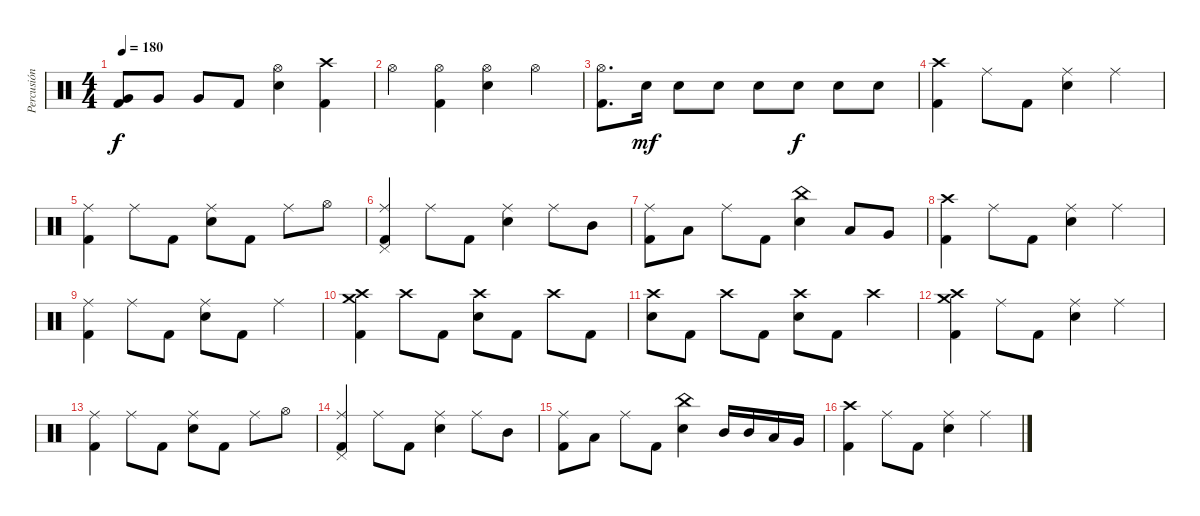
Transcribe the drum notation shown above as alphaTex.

\track ("Percusión" "Percusión") {instrument percussion}
\staff {score}
\articulation defaults
\ts (4 4)
\tempo 180
\clef neutral
\ks c
("Very Low Tom (hit)" "Kick (hit) 2").8{dy f} "Very Low Tom (hit)".8 "Very Low Tom (hit)".8 "Kick (hit) 2".8 ("Hi-Hat (open)" "Snare (hit) 2").4 ("Crash high (hit)" "Kick (hit) 2").4 |
"Hi-Hat (open)".4 ("Hi-Hat (open)" "Kick (hit) 2").4 ("Hi-Hat (open)" "Snare (hit) 2").4 "Hi-Hat (open)".4 |
("Hi-Hat (open)" "Kick (hit) 2").8{d} "Snare (hit) 2".16{dy mf} "Snare (hit) 2".8 "Snare (hit) 2".8 "Snare (hit) 2".8 "Snare (hit) 2".8{dy f} "Snare (hit) 2".8 "Snare (hit) 2".8 |
("Crash high (hit)" "Kick (hit) 2").4 "Ride (middle)".8 "Kick (hit) 2".8 ("Ride (middle)" "Snare (hit) 2").4 "Ride (middle)".4 |
("Ride (middle)" "Kick (hit) 2").4 "Ride (middle)".8 "Kick (hit) 2".8 ("Ride (middle)" "Snare (hit) 2").8 "Kick (hit) 2".8 "Ride (middle)".8 "Hi-Hat (open)".8 |
("Pedal Hi-Hat (hit)" "Ride (middle)" "Kick (hit) 2").4 "Ride (middle)".8 "Kick (hit) 2".8 ("Ride (middle)" "Snare (hit) 2").4 "Ride (middle)".8 "Mid Tom (hit)".8 |
("Ride (middle)" "Kick (hit) 2").8 "Low Tom (hit)".8 "Ride (middle)".8 "Kick (hit) 2".8 ("China (hit)" "Snare (hit) 2").4 "Low Tom (hit)".8 "Very Low Tom (hit)".8 |
("Crash high (hit)" "Kick (hit) 2").4 "Ride (middle)".8 "Kick (hit) 2".8 ("Ride (middle)" "Snare (hit) 2").4 "Ride (middle)".4 |
("Ride (middle)" "Kick (hit) 2").4 "Ride (middle)".8 "Kick (hit) 2".8 ("Ride (middle)" "Snare (hit) 2").8 "Kick (hit) 2".8 "Ride (middle)".4 |
("Crash medium (hit)" "Crash high (hit)" "Kick (hit) 2").4 "Crash high (hit)".8 "Kick (hit) 2".8 ("Crash high (hit)" "Snare (hit) 2").8 "Kick (hit) 2".8 "Crash high (hit)".8 "Kick (hit) 2".8 |
("Crash high (hit)" "Snare (hit) 2").8 "Kick (hit) 2".8 "Crash high (hit)".8 "Kick (hit) 2".8 ("Crash high (hit)" "Snare (hit) 2").8 "Kick (hit) 2".8 "Crash high (hit)".4 |
("Crash high (hit)" "Crash medium (hit)" "Kick (hit) 2").4 "Ride (middle)".8 "Kick (hit) 2".8 ("Ride (middle)" "Snare (hit) 2").4 "Ride (middle)".4 |
("Ride (middle)" "Kick (hit) 2").4 "Ride (middle)".8 "Kick (hit) 2".8 ("Ride (middle)" "Snare (hit) 2").8 "Kick (hit) 2".8 "Ride (middle)".8 "Hi-Hat (open)".8 |
("Pedal Hi-Hat (hit)" "Ride (middle)" "Kick (hit) 2").4 "Ride (middle)".8 "Kick (hit) 2".8 ("Ride (middle)" "Snare (hit) 2").4 "Ride (middle)".8 "Mid Tom (hit)".8 |
("Ride (middle)" "Kick (hit) 2").8 "Low Tom (hit)".8 "Ride (middle)".8 "Kick (hit) 2".8 ("China (hit)" "Snare (hit) 2").4 "Mid Tom (hit)".16 "Mid Tom (hit)".16 "Low Tom (hit)".16 "Very Low Tom (hit)".16 |
("Crash high (hit)" "Kick (hit) 2").4 "Ride (middle)".8 "Kick (hit) 2".8 ("Ride (middle)" "Snare (hit) 2").4 "Ride (middle)".4
